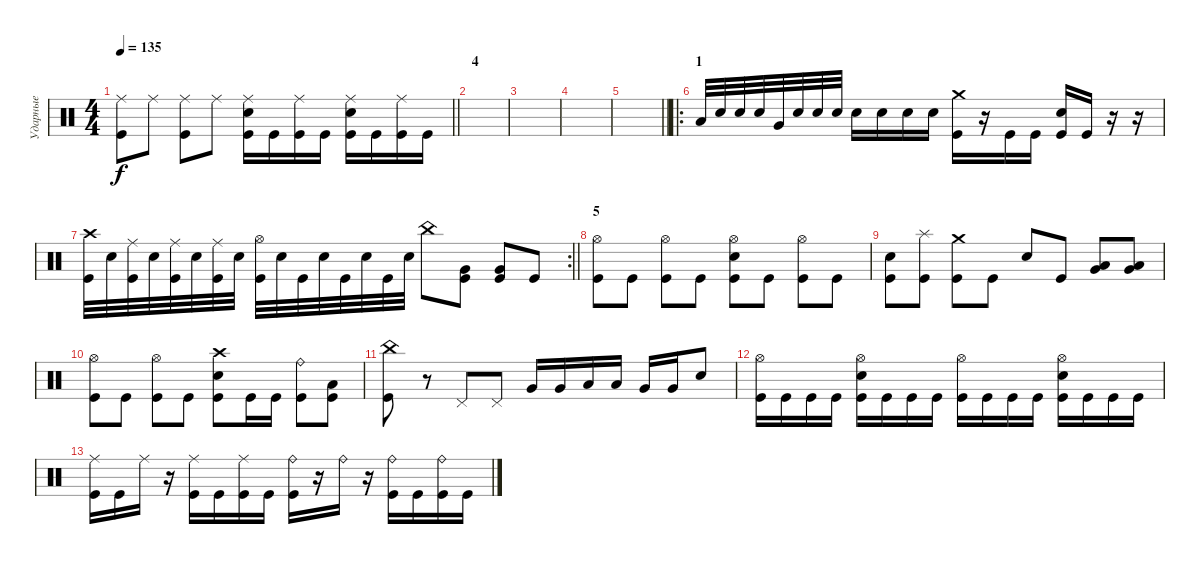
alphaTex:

\track ("Ударные" "Ударные") {instrument percussion}
\staff {score}
\articulation defaults
\ts (4 4)
\tempo 135
\clef neutral
\barLineRight lightlight
\ks c
("Ride (middle)" "Kick (hit)").8{dy f} "Ride (middle)".8 ("Ride (middle)" "Kick (hit)").8 "Ride (middle)".8 ("Ride (middle)" "Electric Snare (hit)" "Kick (hit)").16 "Kick (hit)".16 ("Ride (middle)" "Kick (hit)").16 "Kick (hit)".16 ("Ride (middle)" "Electric Snare (hit)" "Kick (hit)").16 "Kick (hit)".16 ("Ride (middle)" "Kick (hit)").16 "Kick (hit)".16 |
\section ("" "4")
|
|
|
\barLineRight lightlight
|
\ro
\section ("" "1")
"Low Tom (hit)".32 "Electric Snare (hit)".32 "Electric Snare (hit)".32 "Electric Snare (hit)".32 "Very Low Tom (hit)".32 "Electric Snare (hit)".32 "Electric Snare (hit)".32 "Electric Snare (hit)".32 "Electric Snare (hit)".16 "Electric Snare (hit)".16 "Electric Snare (hit)".16 "Electric Snare (hit)".16 ("Crash medium (hit)" "Kick (hit)").16 r.16 "Kick (hit)".16 "Kick (hit)".16 ("Electric Snare (hit)" "Kick (hit)").16 "Kick (hit)".16 r.16 r.16 |
\rc 2
\barLineRight lightlight
("Crash high (hit)" "Kick (hit)").32 "Electric Snare (hit)".32 ("Ride (middle)" "Kick (hit)").32 "Electric Snare (hit)".32 ("Ride (middle)" "Kick (hit)").32 "Electric Snare (hit)".32 ("Ride (middle)" "Kick (hit)").32 "Electric Snare (hit)".32 ("Hi-Hat (open)" "Kick (hit)").32 "Electric Snare (hit)".32 "Kick (hit)".32 "Electric Snare (hit)".32 "Kick (hit)".32 "Electric Snare (hit)".32 "Kick (hit)".32 "Electric Snare (hit)".32 "China (hit)".8 ("Very Low Tom (hit)" "Kick (hit)").8 ("Very Low Tom (hit)" "Kick (hit)").8 "Kick (hit)".8 |
\section ("" "5")
("Hi-Hat (open)" "Kick (hit)").8 "Kick (hit)".8 ("Hi-Hat (open)" "Kick (hit)").8 "Kick (hit)".8 ("Hi-Hat (open)" "Electric Snare (hit)" "Kick (hit)").8 "Kick (hit)".8 ("Hi-Hat (open)" "Kick (hit)").8 "Kick (hit)".8 |
("Electric Snare (hit)" "Kick (hit)").8 ("Splash (hit)" "Kick (hit)").8 ("Crash medium (hit)" "Kick (hit)").8 "Kick (hit)".8 "Electric Snare (hit)".8 "Kick (hit)".8 ("Very Low Tom (hit)" "Low Floor Tom (hit)").8 ("Very Low Tom (hit)" "Low Floor Tom (hit)").8 |
("Hi-Hat (open)" "Kick (hit)").8 "Kick (hit)".8 ("Hi-Hat (open)" "Kick (hit)").8 "Kick (hit)".8 ("Crash high (hit)" "Electric Snare (hit)" "Kick (hit)").8 "Kick (hit)".16 "Kick (hit)".16 ("Ride (bell)" "Kick (hit)").8 ("Low Tom (hit)" "Kick (hit)").8 |
("China (hit)" "Kick (hit)").8 r.8 "Pedal Hi-Hat (hit)".8 "Pedal Hi-Hat (hit)".8 "Very Low Tom (hit)".16 "Very Low Tom (hit)".16 "Low Tom (hit)".16 "Low Tom (hit)".16 "Very Low Tom (hit)".16 "Very Low Tom (hit)".16 "Electric Snare (hit)".8 |
("Hi-Hat (open)" "Kick (hit)").16 "Kick (hit)".16 "Kick (hit)".16 "Kick (hit)".16 ("Hi-Hat (open)" "Electric Snare (hit)" "Kick (hit)").16 "Kick (hit)".16 "Kick (hit)".16 "Kick (hit)".16 ("Hi-Hat (open)" "Kick (hit)").16 "Kick (hit)".16 "Kick (hit)".16 "Kick (hit)".16 ("Hi-Hat (open)" "Electric Snare (hit)" "Kick (hit)").16 "Kick (hit)".16 "Kick (hit)".16 "Kick (hit)".16 |
("Ride (middle)" "Kick (hit)").16 "Kick (hit)".16 "Ride (middle)".16 r.16 ("Ride (middle)" "Kick (hit)").16 "Kick (hit)".16 ("Ride (middle)" "Kick (hit)").16 "Kick (hit)".16 ("Ride (bell)" "Kick (hit)").16 r.16 "Ride (bell)".16 r.16 ("Ride (bell)" "Kick (hit)").16 "Kick (hit)".16 ("Ride (bell)" "Kick (hit)").16 "Kick (hit)".16
